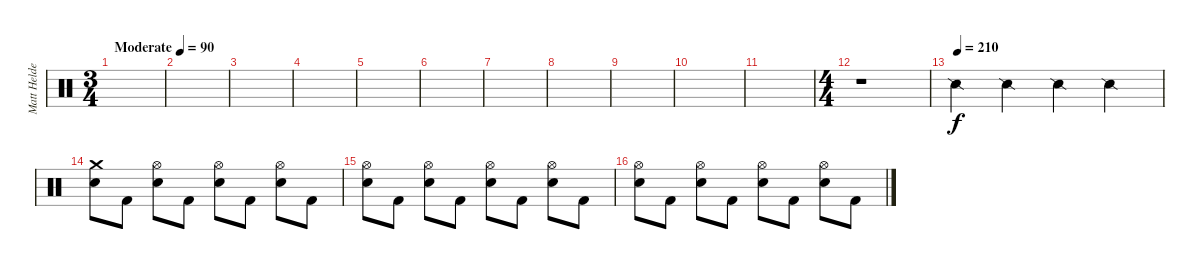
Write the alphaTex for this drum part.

\track ("Matt Helders" "Matt Helde") {instrument percussion}
\staff {score}
\articulation defaults
\ts (3 4)
\tempo (90 "Moderate")
\clef neutral
\ks c
|
|
|
|
|
|
|
|
|
|
|
\ts (4 4)
r.1 |
\tempo (210)
"Snare (side stick) 2".4 "Snare (side stick) 2".4 "Snare (side stick) 2".4 "Snare (side stick) 2".4 |
("Crash medium (hit)" "Snare (hit) 2").8 "Kick (hit) 2".8 ("Hi-Hat (open)" "Snare (hit) 2").8 "Kick (hit) 2".8 ("Hi-Hat (open)" "Snare (hit) 2").8 "Kick (hit) 2".8 ("Hi-Hat (open)" "Snare (hit) 2").8 "Kick (hit) 2".8 |
("Hi-Hat (open)" "Snare (hit) 2").8 "Kick (hit) 2".8 ("Hi-Hat (open)" "Snare (hit) 2").8 "Kick (hit) 2".8 ("Hi-Hat (open)" "Snare (hit) 2").8 "Kick (hit) 2".8 ("Hi-Hat (open)" "Snare (hit) 2").8 "Kick (hit) 2".8 |
("Hi-Hat (open)" "Snare (hit) 2").8 "Kick (hit) 2".8 ("Hi-Hat (open)" "Snare (hit) 2").8 "Kick (hit) 2".8 ("Hi-Hat (open)" "Snare (hit) 2").8 "Kick (hit) 2".8 ("Hi-Hat (open)" "Snare (hit) 2").8 "Kick (hit) 2".8
